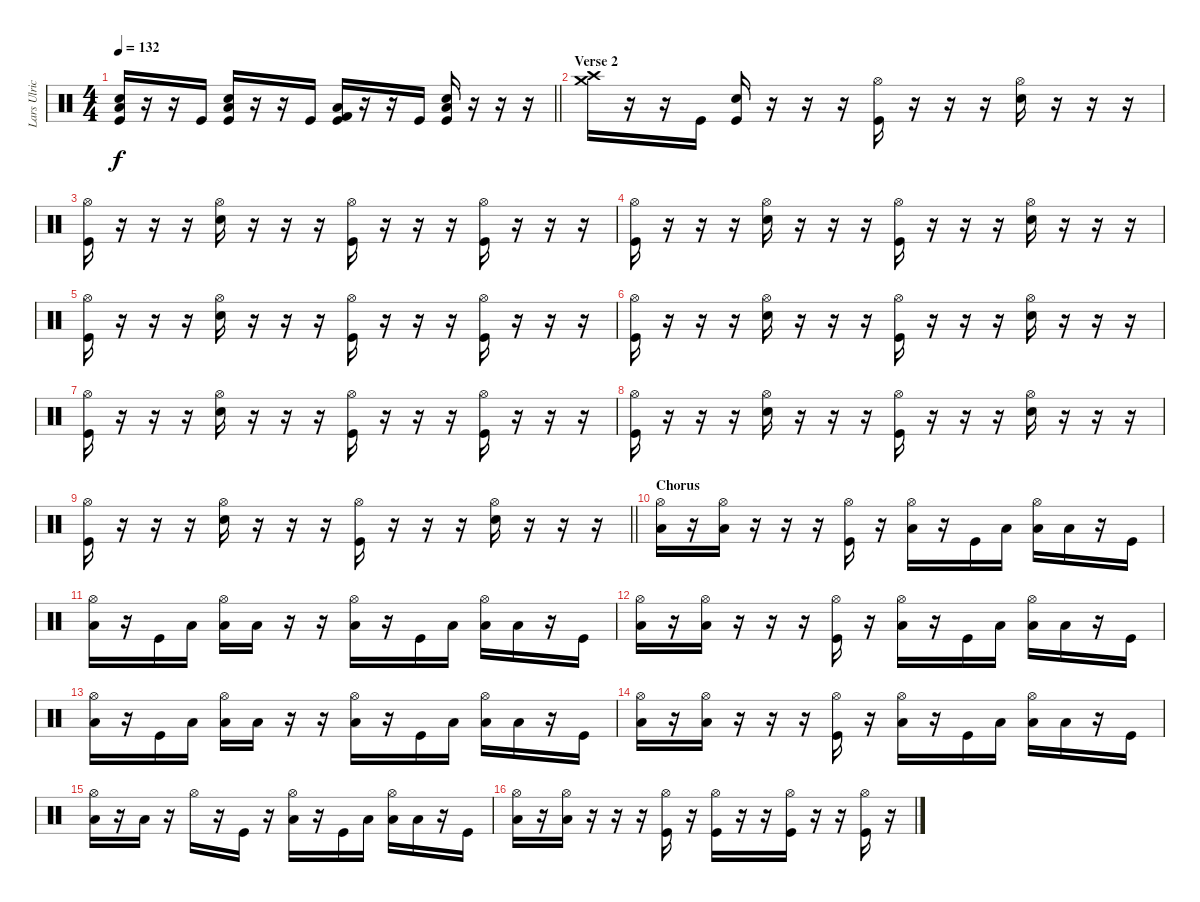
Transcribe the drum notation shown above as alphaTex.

\track ("Lars Ulrich" "Lars Ulric") {instrument percussion}
\staff {score}
\articulation defaults
\ts (4 4)
\tempo 132
\clef neutral
\barLineRight lightlight
\ks c
("Kick (hit)" "Snare (hit) 2" "Low Floor Tom (hit)").16{dy f} r.16 r.16 "Kick (hit)".16 ("Kick (hit)" "Snare (hit) 2" "Low Floor Tom (hit)").16 r.16 r.16 "Kick (hit)".16 ("Kick (hit)" "Kick (hit) 2" "Low Floor Tom (hit)").16 r.16 r.16 "Kick (hit)".16 ("Kick (hit)" "Snare (hit) 2" "Low Floor Tom (hit)").16 r.16 r.16 r.16 |
\section ("" "Verse 2")
("Crash medium (hit)" "Crash high (hit)").16 r.16 r.16 "Kick (hit)".16 ("Kick (hit)" "Snare (hit) 2").16 r.16 r.16 r.16 ("Hi-Hat (open)" "Kick (hit)").16 r.16 r.16 r.16 ("Hi-Hat (open)" "Snare (hit) 2").16 r.16 r.16 r.16 |
("Hi-Hat (open)" "Kick (hit)").16 r.16 r.16 r.16 ("Hi-Hat (open)" "Snare (hit) 2").16 r.16 r.16 r.16 ("Hi-Hat (open)" "Kick (hit)").16 r.16 r.16 r.16 ("Hi-Hat (open)" "Kick (hit)").16 r.16 r.16 r.16 |
("Hi-Hat (open)" "Kick (hit)").16 r.16 r.16 r.16 ("Hi-Hat (open)" "Snare (hit) 2").16 r.16 r.16 r.16 ("Hi-Hat (open)" "Kick (hit)").16 r.16 r.16 r.16 ("Hi-Hat (open)" "Snare (hit) 2").16 r.16 r.16 r.16 |
("Hi-Hat (open)" "Kick (hit)").16 r.16 r.16 r.16 ("Hi-Hat (open)" "Snare (hit) 2").16 r.16 r.16 r.16 ("Hi-Hat (open)" "Kick (hit)").16 r.16 r.16 r.16 ("Hi-Hat (open)" "Kick (hit)").16 r.16 r.16 r.16 |
("Hi-Hat (open)" "Kick (hit)").16 r.16 r.16 r.16 ("Hi-Hat (open)" "Snare (hit) 2").16 r.16 r.16 r.16 ("Hi-Hat (open)" "Kick (hit)").16 r.16 r.16 r.16 ("Hi-Hat (open)" "Snare (hit) 2").16 r.16 r.16 r.16 |
("Hi-Hat (open)" "Kick (hit)").16 r.16 r.16 r.16 ("Hi-Hat (open)" "Snare (hit) 2").16 r.16 r.16 r.16 ("Hi-Hat (open)" "Kick (hit)").16 r.16 r.16 r.16 ("Hi-Hat (open)" "Kick (hit)").16 r.16 r.16 r.16 |
("Hi-Hat (open)" "Kick (hit)").16 r.16 r.16 r.16 ("Hi-Hat (open)" "Snare (hit) 2").16 r.16 r.16 r.16 ("Hi-Hat (open)" "Kick (hit)").16 r.16 r.16 r.16 ("Hi-Hat (open)" "Snare (hit) 2").16 r.16 r.16 r.16 |
\barLineRight lightlight
("Hi-Hat (open)" "Kick (hit)").16 r.16 r.16 r.16 ("Hi-Hat (open)" "Snare (hit) 2").16 r.16 r.16 r.16 ("Hi-Hat (open)" "Kick (hit)").16 r.16 r.16 r.16 ("Hi-Hat (open)" "Snare (hit) 2").16 r.16 r.16 r.16 |
\section ("" "Chorus")
("Hi-Hat (open)" "Low Floor Tom (hit)").16 r.16 ("Hi-Hat (open)" "Low Floor Tom (hit)").16 r.16 r.16 r.16 ("Hi-Hat (open)" "Kick (hit)").16 r.16 ("Hi-Hat (open)" "Low Floor Tom (hit)").16 r.16 "Kick (hit)".16 "Low Floor Tom (hit)".16 ("Hi-Hat (open)" "Low Floor Tom (hit)").16 "Low Floor Tom (hit)".16 r.16 "Kick (hit)".16 |
("Hi-Hat (open)" "Low Floor Tom (hit)").16 r.16 "Kick (hit)".16 "Low Floor Tom (hit)".16 ("Hi-Hat (open)" "Low Floor Tom (hit)").16 "Low Floor Tom (hit)".16 r.16 r.16 ("Hi-Hat (open)" "Low Floor Tom (hit)").16 r.16 "Kick (hit)".16 "Low Floor Tom (hit)".16 ("Hi-Hat (open)" "Low Floor Tom (hit)").16 "Low Floor Tom (hit)".16 r.16 "Kick (hit)".16 |
("Hi-Hat (open)" "Low Floor Tom (hit)").16 r.16 ("Hi-Hat (open)" "Low Floor Tom (hit)").16 r.16 r.16 r.16 ("Hi-Hat (open)" "Kick (hit)").16 r.16 ("Hi-Hat (open)" "Low Floor Tom (hit)").16 r.16 "Kick (hit)".16 "Low Floor Tom (hit)".16 ("Hi-Hat (open)" "Low Floor Tom (hit)").16 "Low Floor Tom (hit)".16 r.16 "Kick (hit)".16 |
("Hi-Hat (open)" "Low Floor Tom (hit)").16 r.16 "Kick (hit)".16 "Low Floor Tom (hit)".16 ("Hi-Hat (open)" "Low Floor Tom (hit)").16 "Low Floor Tom (hit)".16 r.16 r.16 ("Hi-Hat (open)" "Low Floor Tom (hit)").16 r.16 "Kick (hit)".16 "Low Floor Tom (hit)".16 ("Hi-Hat (open)" "Low Floor Tom (hit)").16 "Low Floor Tom (hit)".16 r.16 "Kick (hit)".16 |
("Hi-Hat (open)" "Low Floor Tom (hit)").16 r.16 ("Hi-Hat (open)" "Low Floor Tom (hit)").16 r.16 r.16 r.16 ("Hi-Hat (open)" "Kick (hit)").16 r.16 ("Hi-Hat (open)" "Low Floor Tom (hit)").16 r.16 "Kick (hit)".16 "Low Floor Tom (hit)".16 ("Hi-Hat (open)" "Low Floor Tom (hit)").16 "Low Floor Tom (hit)".16 r.16 "Kick (hit)".16 |
("Hi-Hat (open)" "Low Floor Tom (hit)").16 r.16 "Low Floor Tom (hit)".16 r.16 "Hi-Hat (open)".16 r.16 "Kick (hit)".16 r.16 ("Hi-Hat (open)" "Low Floor Tom (hit)").16 r.16 "Kick (hit)".16 "Low Floor Tom (hit)".16 ("Hi-Hat (open)" "Low Floor Tom (hit)").16 "Low Floor Tom (hit)".16 r.16 "Kick (hit)".16 |
("Hi-Hat (open)" "Low Floor Tom (hit)").16 r.16 ("Hi-Hat (open)" "Low Floor Tom (hit)").16 r.16 r.16 r.16 ("Hi-Hat (open)" "Kick (hit)").16 r.16 ("Hi-Hat (open)" "Kick (hit)").16 r.16 r.16 ("Hi-Hat (open)" "Kick (hit)").16 r.16 r.16 ("Hi-Hat (open)" "Kick (hit)").16 r.16
